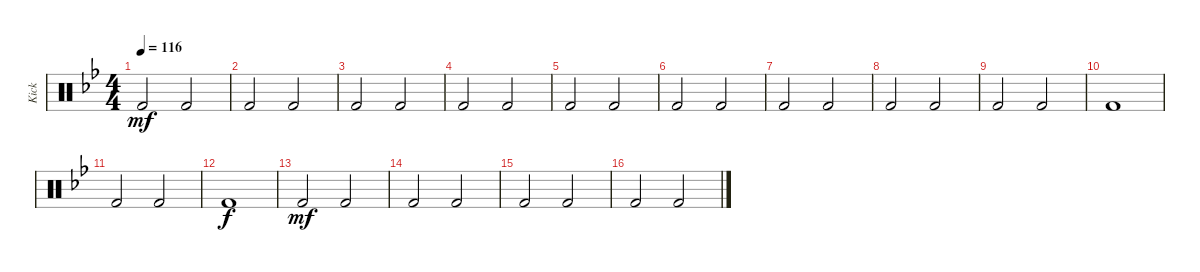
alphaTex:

\track ("Kick" "Kick") {instrument percussion}
\staff {score}
\articulation defaults
\ts (4 4)
\tempo 116
\clef neutral
\ks bb "Kick (hit) 2".2{dy mf} "Kick (hit) 2".2
|
"Kick (hit) 2".2 "Kick (hit) 2".2 |
"Kick (hit) 2".2 "Kick (hit) 2".2 |
"Kick (hit) 2".2 "Kick (hit) 2".2 |
"Kick (hit) 2".2 "Kick (hit) 2".2 |
"Kick (hit) 2".2 "Kick (hit) 2".2 |
"Kick (hit) 2".2 "Kick (hit) 2".2 |
"Kick (hit) 2".2 "Kick (hit) 2".2 |
"Kick (hit) 2".2 "Kick (hit) 2".2 |
"Kick (hit) 2".1 |
"Kick (hit) 2".2 "Kick (hit) 2".2 |
"Kick (hit) 2".1{dy f} |
"Kick (hit) 2".2{dy mf} "Kick (hit) 2".2 |
"Kick (hit) 2".2 "Kick (hit) 2".2 |
"Kick (hit) 2".2 "Kick (hit) 2".2 |
"Kick (hit) 2".2 "Kick (hit) 2".2
